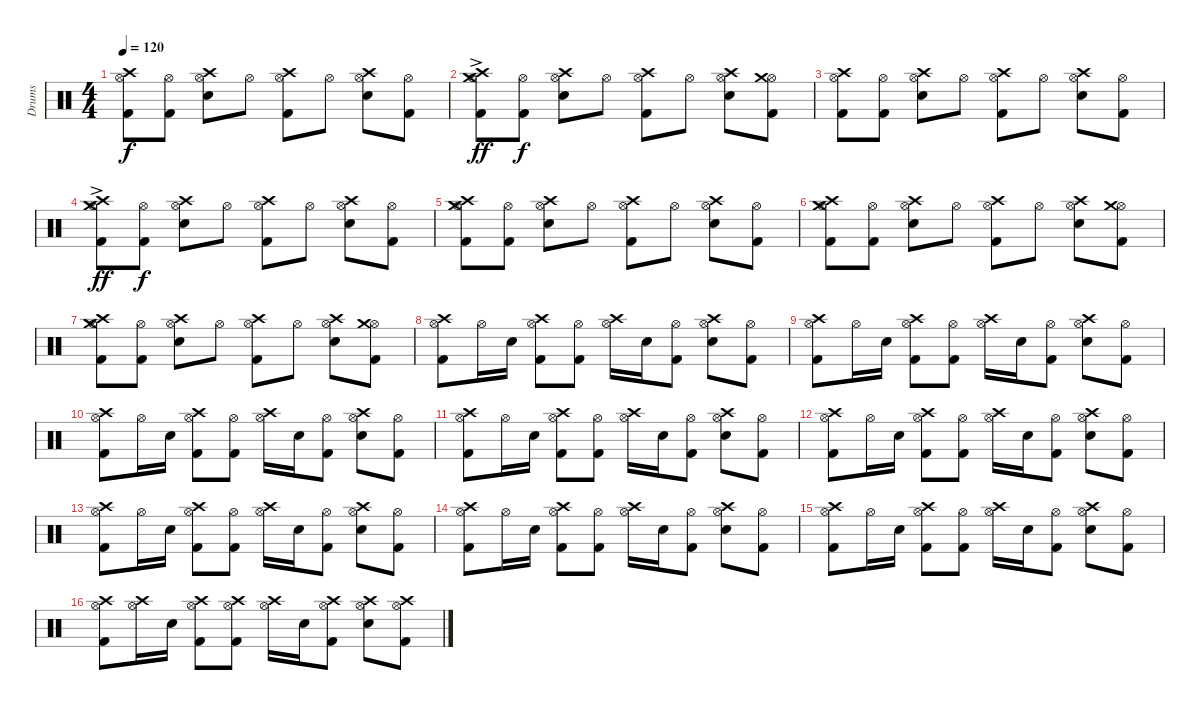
\track ("Drums" "Drums") {instrument percussion}
\staff {score}
\articulation defaults
\ts (4 4)
\tempo 120
\clef neutral
\ks c
("Crash high (hit)" "Hi-Hat (open)" "Kick (hit) 2").8{dy f} ("Hi-Hat (open)" "Kick (hit) 2").8 ("Crash high (hit)" "Hi-Hat (open)" "Electric Snare (hit)").8 "Hi-Hat (open)".8 ("Crash high (hit)" "Hi-Hat (open)" "Kick (hit) 2").8 "Hi-Hat (open)".8 ("Crash high (hit)" "Hi-Hat (open)" "Electric Snare (hit)").8 ("Hi-Hat (open)" "Kick (hit) 2").8 |
("Crash high (hit)" "Hi-Hat (open)" "Crash medium (hit)"{ac} "Kick (hit) 2").8{dy ff} ("Hi-Hat (open)" "Kick (hit) 2").8{dy f} ("Crash high (hit)" "Hi-Hat (open)" "Electric Snare (hit)").8 "Hi-Hat (open)".8 ("Crash high (hit)" "Hi-Hat (open)" "Kick (hit) 2").8 "Hi-Hat (open)".8 ("Crash high (hit)" "Hi-Hat (open)" "Electric Snare (hit)").8 ("Hi-Hat (open)" "Crash medium (hit)" "Kick (hit) 2").8 |
("Crash high (hit)" "Hi-Hat (open)" "Kick (hit) 2").8 ("Hi-Hat (open)" "Kick (hit) 2").8 ("Crash high (hit)" "Hi-Hat (open)" "Electric Snare (hit)").8 "Hi-Hat (open)".8 ("Crash high (hit)" "Hi-Hat (open)" "Kick (hit) 2").8 "Hi-Hat (open)".8 ("Crash high (hit)" "Hi-Hat (open)" "Electric Snare (hit)").8 ("Hi-Hat (open)" "Kick (hit) 2").8 |
("Crash high (hit)" "Hi-Hat (open)" "Crash medium (hit)"{ac} "Kick (hit) 2").8{dy ff} ("Hi-Hat (open)" "Kick (hit) 2").8{dy f} ("Crash high (hit)" "Hi-Hat (open)" "Electric Snare (hit)").8 "Hi-Hat (open)".8 ("Crash high (hit)" "Hi-Hat (open)" "Kick (hit) 2").8 "Hi-Hat (open)".8 ("Crash high (hit)" "Hi-Hat (open)" "Electric Snare (hit)").8 ("Hi-Hat (open)" "Kick (hit) 2").8 |
("Crash high (hit)" "Hi-Hat (open)" "Crash medium (hit)" "Kick (hit) 2").8 ("Hi-Hat (open)" "Kick (hit) 2").8 ("Crash high (hit)" "Hi-Hat (open)" "Electric Snare (hit)").8 "Hi-Hat (open)".8 ("Crash high (hit)" "Hi-Hat (open)" "Kick (hit) 2").8 "Hi-Hat (open)".8 ("Crash high (hit)" "Hi-Hat (open)" "Electric Snare (hit)").8 ("Hi-Hat (open)" "Kick (hit) 2").8 |
("Crash high (hit)" "Hi-Hat (open)" "Crash medium (hit)" "Kick (hit) 2").8 ("Hi-Hat (open)" "Kick (hit) 2").8 ("Crash high (hit)" "Hi-Hat (open)" "Electric Snare (hit)").8 "Hi-Hat (open)".8 ("Crash high (hit)" "Hi-Hat (open)" "Kick (hit) 2").8 "Hi-Hat (open)".8 ("Crash high (hit)" "Hi-Hat (open)" "Electric Snare (hit)").8 ("Hi-Hat (open)" "Crash medium (hit)" "Kick (hit) 2").8 |
("Crash high (hit)" "Hi-Hat (open)" "Crash medium (hit)" "Kick (hit) 2").8 ("Hi-Hat (open)" "Kick (hit) 2").8 ("Crash high (hit)" "Hi-Hat (open)" "Electric Snare (hit)").8 "Hi-Hat (open)".8 ("Crash high (hit)" "Hi-Hat (open)" "Kick (hit) 2").8 "Hi-Hat (open)".8 ("Crash high (hit)" "Hi-Hat (open)" "Electric Snare (hit)").8 ("Hi-Hat (open)" "Crash medium (hit)" "Kick (hit) 2").8 |
("Hi-Hat (open)" "Crash high (hit)" "Kick (hit) 2").8 "Hi-Hat (open)".16 "Electric Snare (hit)".16 ("Hi-Hat (open)" "Crash high (hit)" "Kick (hit) 2").8 ("Hi-Hat (open)" "Kick (hit) 2").8 ("Hi-Hat (open)" "Crash high (hit)").16 "Electric Snare (hit)".16 ("Hi-Hat (open)" "Kick (hit) 2").8 ("Hi-Hat (open)" "Crash high (hit)" "Electric Snare (hit)").8 ("Hi-Hat (open)" "Kick (hit) 2").8 |
("Hi-Hat (open)" "Crash high (hit)" "Kick (hit) 2").8 "Hi-Hat (open)".16 "Electric Snare (hit)".16 ("Hi-Hat (open)" "Crash high (hit)" "Kick (hit) 2").8 ("Hi-Hat (open)" "Kick (hit) 2").8 ("Hi-Hat (open)" "Crash high (hit)").16 "Electric Snare (hit)".16 ("Hi-Hat (open)" "Kick (hit) 2").8 ("Hi-Hat (open)" "Crash high (hit)" "Electric Snare (hit)").8 ("Hi-Hat (open)" "Kick (hit) 2").8 |
("Hi-Hat (open)" "Crash high (hit)" "Kick (hit) 2").8 "Hi-Hat (open)".16 "Electric Snare (hit)".16 ("Hi-Hat (open)" "Crash high (hit)" "Kick (hit) 2").8 ("Hi-Hat (open)" "Kick (hit) 2").8 ("Hi-Hat (open)" "Crash high (hit)").16 "Electric Snare (hit)".16 ("Hi-Hat (open)" "Kick (hit) 2").8 ("Hi-Hat (open)" "Crash high (hit)" "Electric Snare (hit)").8 ("Hi-Hat (open)" "Kick (hit) 2").8 |
("Hi-Hat (open)" "Crash high (hit)" "Kick (hit) 2").8 "Hi-Hat (open)".16 "Electric Snare (hit)".16 ("Hi-Hat (open)" "Crash high (hit)" "Kick (hit) 2").8 ("Hi-Hat (open)" "Kick (hit) 2").8 ("Hi-Hat (open)" "Crash high (hit)").16 "Electric Snare (hit)".16 ("Hi-Hat (open)" "Kick (hit) 2").8 ("Hi-Hat (open)" "Crash high (hit)" "Electric Snare (hit)").8 ("Hi-Hat (open)" "Kick (hit) 2").8 |
("Hi-Hat (open)" "Crash high (hit)" "Kick (hit) 2").8 "Hi-Hat (open)".16 "Electric Snare (hit)".16 ("Hi-Hat (open)" "Crash high (hit)" "Kick (hit) 2").8 ("Hi-Hat (open)" "Kick (hit) 2").8 ("Hi-Hat (open)" "Crash high (hit)").16 "Electric Snare (hit)".16 ("Hi-Hat (open)" "Kick (hit) 2").8 ("Hi-Hat (open)" "Crash high (hit)" "Electric Snare (hit)").8 ("Hi-Hat (open)" "Kick (hit) 2").8 |
("Hi-Hat (open)" "Crash high (hit)" "Kick (hit) 2").8 "Hi-Hat (open)".16 "Electric Snare (hit)".16 ("Hi-Hat (open)" "Crash high (hit)" "Kick (hit) 2").8 ("Hi-Hat (open)" "Kick (hit) 2").8 ("Hi-Hat (open)" "Crash high (hit)").16 "Electric Snare (hit)".16 ("Hi-Hat (open)" "Kick (hit) 2").8 ("Hi-Hat (open)" "Crash high (hit)" "Electric Snare (hit)").8 ("Hi-Hat (open)" "Kick (hit) 2").8 |
("Hi-Hat (open)" "Crash high (hit)" "Kick (hit) 2").8 "Hi-Hat (open)".16 "Electric Snare (hit)".16 ("Hi-Hat (open)" "Crash high (hit)" "Kick (hit) 2").8 ("Hi-Hat (open)" "Kick (hit) 2").8 ("Hi-Hat (open)" "Crash high (hit)").16 "Electric Snare (hit)".16 ("Hi-Hat (open)" "Kick (hit) 2").8 ("Hi-Hat (open)" "Crash high (hit)" "Electric Snare (hit)").8 ("Hi-Hat (open)" "Kick (hit) 2").8 |
("Hi-Hat (open)" "Crash high (hit)" "Kick (hit) 2").8 "Hi-Hat (open)".16 "Electric Snare (hit)".16 ("Hi-Hat (open)" "Crash high (hit)" "Kick (hit) 2").8 ("Hi-Hat (open)" "Kick (hit) 2").8 ("Hi-Hat (open)" "Crash high (hit)").16 "Electric Snare (hit)".16 ("Hi-Hat (open)" "Kick (hit) 2").8 ("Hi-Hat (open)" "Crash high (hit)" "Electric Snare (hit)").8 ("Hi-Hat (open)" "Kick (hit) 2").8 |
("Hi-Hat (open)" "Crash high (hit)" "Kick (hit) 2").8 ("Hi-Hat (open)" "Crash high (hit)").16 "Electric Snare (hit)".16 ("Hi-Hat (open)" "Crash high (hit)" "Kick (hit) 2").8 ("Hi-Hat (open)" "Crash high (hit)" "Kick (hit) 2").8 ("Hi-Hat (open)" "Crash high (hit)").16 "Electric Snare (hit)".16 ("Hi-Hat (open)" "Crash high (hit)" "Kick (hit) 2").8 ("Hi-Hat (open)" "Crash high (hit)" "Electric Snare (hit)").8 ("Hi-Hat (open)" "Crash high (hit)" "Kick (hit) 2").8
